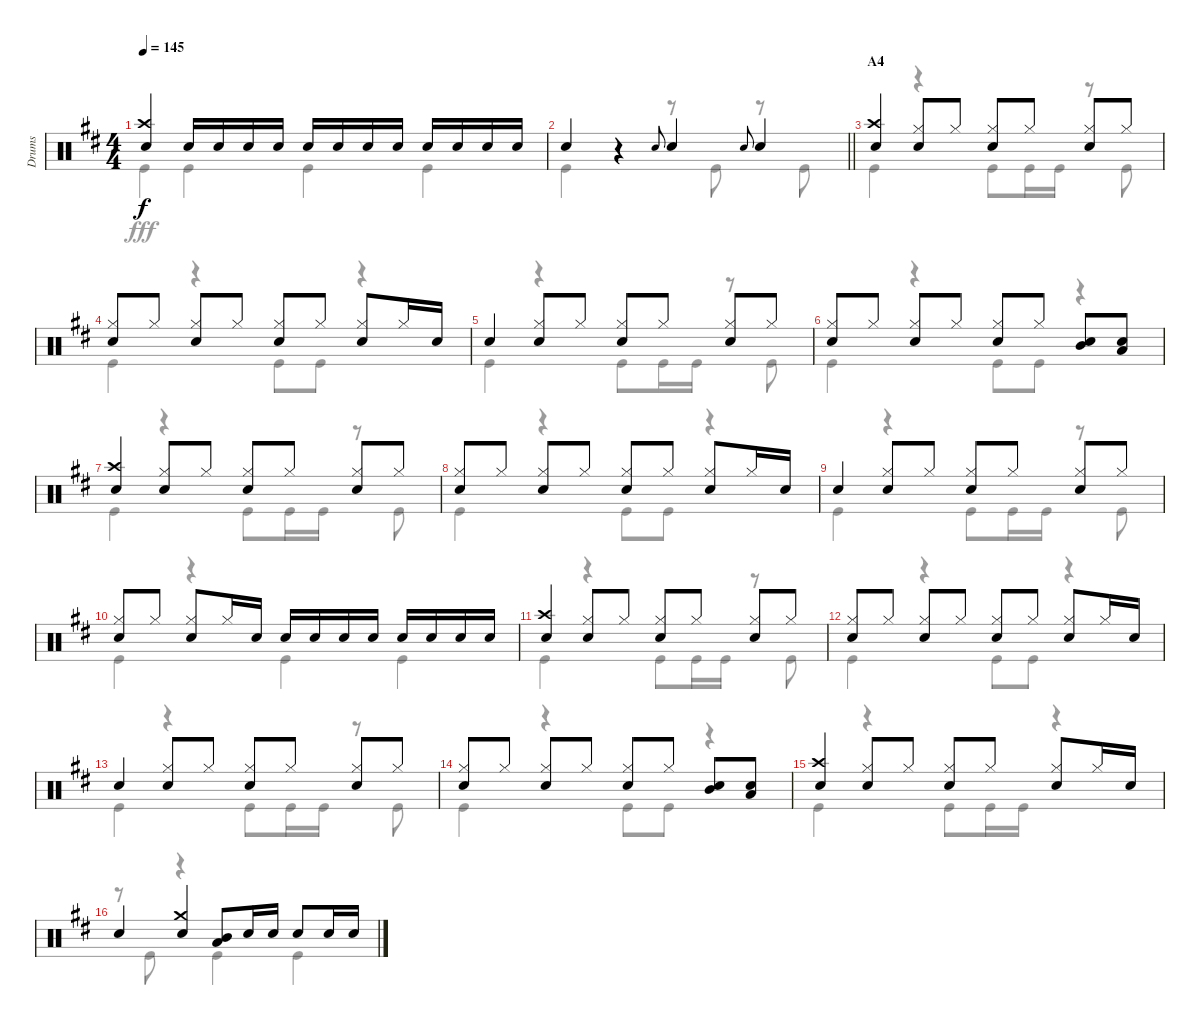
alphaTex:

\track ("Drums" "Drums") {instrument percussion}
\staff {score}
\articulation defaults
\voice
\ts (4 4)
\tempo 145
\clef neutral
\ks d
("Crash high (hit)" "Snare (hit) 2").4{dy f} "Snare (hit) 2".16 "Snare (hit) 2".16 "Snare (hit) 2".16 "Snare (hit) 2".16 "Snare (hit) 2".16 "Snare (hit) 2".16 "Snare (hit) 2".16 "Snare (hit) 2".16 "Snare (hit) 2".16 "Snare (hit) 2".16 "Snare (hit) 2".16 "Snare (hit) 2".16 |
\barLineRight lightlight "Snare (hit) 2".4
r.4 "Snare (hit) 2".8{gr onbeat} "Snare (hit) 2".4 "Snare (hit) 2".8{gr onbeat} "Snare (hit) 2".4 |
\section ("" "A4")
("Crash high (hit)" "Snare (hit) 2").4 ("Hi-Hat (closed)" "Snare (hit) 2").8 "Hi-Hat (closed)".8 ("Hi-Hat (closed)" "Snare (hit) 2").8 "Hi-Hat (closed)".8 ("Hi-Hat (closed)" "Snare (hit) 2").8 "Hi-Hat (closed)".8 |
("Hi-Hat (closed)" "Snare (hit) 2").8 "Hi-Hat (closed)".8 ("Hi-Hat (closed)" "Snare (hit) 2").8 "Hi-Hat (closed)".8 ("Hi-Hat (closed)" "Snare (hit) 2").8 "Hi-Hat (closed)".8 ("Hi-Hat (closed)" "Snare (hit) 2").8 "Hi-Hat (closed)".16 "Snare (hit) 2".16 |
"Snare (hit) 2".4 ("Hi-Hat (closed)" "Snare (hit) 2").8 "Hi-Hat (closed)".8 ("Hi-Hat (closed)" "Snare (hit) 2").8 "Hi-Hat (closed)".8 ("Hi-Hat (closed)" "Snare (hit) 2").8 "Hi-Hat (closed)".8 |
("Hi-Hat (closed)" "Snare (hit) 2").8 "Hi-Hat (closed)".8 ("Hi-Hat (closed)" "Snare (hit) 2").8 "Hi-Hat (closed)".8 ("Hi-Hat (closed)" "Snare (hit) 2").8 "Hi-Hat (closed)".8 ("Mid Tom (hit)" "Snare (hit) 2").8 ("Low Tom (hit)" "Snare (hit) 2").8 |
("Crash high (hit)" "Snare (hit) 2").4 ("Hi-Hat (closed)" "Snare (hit) 2").8 "Hi-Hat (closed)".8 ("Hi-Hat (closed)" "Snare (hit) 2").8 "Hi-Hat (closed)".8 ("Hi-Hat (closed)" "Snare (hit) 2").8 "Hi-Hat (closed)".8 |
("Hi-Hat (closed)" "Snare (hit) 2").8 "Hi-Hat (closed)".8 ("Hi-Hat (closed)" "Snare (hit) 2").8 "Hi-Hat (closed)".8 ("Hi-Hat (closed)" "Snare (hit) 2").8 "Hi-Hat (closed)".8 ("Hi-Hat (closed)" "Snare (hit) 2").8 "Hi-Hat (closed)".16 "Snare (hit) 2".16 |
"Snare (hit) 2".4 ("Hi-Hat (closed)" "Snare (hit) 2").8 "Hi-Hat (closed)".8 ("Hi-Hat (closed)" "Snare (hit) 2").8 "Hi-Hat (closed)".8 ("Hi-Hat (closed)" "Snare (hit) 2").8 "Hi-Hat (closed)".8 |
("Hi-Hat (closed)" "Snare (hit) 2").8 "Hi-Hat (closed)".8 ("Hi-Hat (closed)" "Snare (hit) 2").8 "Hi-Hat (closed)".16 "Snare (hit) 2".16 "Snare (hit) 2".16 "Snare (hit) 2".16 "Snare (hit) 2".16 "Snare (hit) 2".16 "Snare (hit) 2".16 "Snare (hit) 2".16 "Snare (hit) 2".16 "Snare (hit) 2".16 |
("Crash high (hit)" "Snare (hit) 2").4 ("Hi-Hat (closed)" "Snare (hit) 2").8 "Hi-Hat (closed)".8 ("Hi-Hat (closed)" "Snare (hit) 2").8 "Hi-Hat (closed)".8 ("Hi-Hat (closed)" "Snare (hit) 2").8 "Hi-Hat (closed)".8 |
("Hi-Hat (closed)" "Snare (hit) 2").8 "Hi-Hat (closed)".8 ("Hi-Hat (closed)" "Snare (hit) 2").8 "Hi-Hat (closed)".8 ("Hi-Hat (closed)" "Snare (hit) 2").8 "Hi-Hat (closed)".8 ("Hi-Hat (closed)" "Snare (hit) 2").8 "Hi-Hat (closed)".16 "Snare (hit) 2".16 |
"Snare (hit) 2".4 ("Hi-Hat (closed)" "Snare (hit) 2").8 "Hi-Hat (closed)".8 ("Hi-Hat (closed)" "Snare (hit) 2").8 "Hi-Hat (closed)".8 ("Hi-Hat (closed)" "Snare (hit) 2").8 "Hi-Hat (closed)".8 |
("Hi-Hat (closed)" "Snare (hit) 2").8 "Hi-Hat (closed)".8 ("Hi-Hat (closed)" "Snare (hit) 2").8 "Hi-Hat (closed)".8 ("Hi-Hat (closed)" "Snare (hit) 2").8 "Hi-Hat (closed)".8 ("Mid Tom (hit)" "Snare (hit) 2").8 ("Low Tom (hit)" "Snare (hit) 2").8 |
("Crash high (hit)" "Snare (hit) 2").4 ("Hi-Hat (closed)" "Snare (hit) 2").8 "Hi-Hat (closed)".8 ("Hi-Hat (closed)" "Snare (hit) 2").8 "Hi-Hat (closed)".8 ("Hi-Hat (closed)" "Snare (hit) 2").8 "Hi-Hat (closed)".16 "Snare (hit) 2".16 |
"Snare (hit) 2".4 ("Crash medium (hit)" "Snare (hit) 2").4 ("Low Tom (hit)" "Mid Tom (hit)").8 "Snare (hit) 2".16 "Snare (hit) 2".16 "Snare (hit) 2".8 "Snare (hit) 2".16 "Snare (hit) 2".16
\voice
\clef neutral
\ottava regular
\simile none
\ks d "Kick (hit)".4{dy fff} "Kick (hit)".4 "Kick (hit)".4 "Kick (hit)".4
|
\barLineRight lightlight "Kick (hit)".4
r.4 r.8 "Kick (hit)".8 r.8 "Kick (hit)".8 |
"Kick (hit)".4 r.4 "Kick (hit)".8 "Kick (hit)".16 "Kick (hit)".16 r.8 "Kick (hit)".8 |
"Kick (hit)".4 r.4 "Kick (hit)".8 "Kick (hit)".8 r.4 |
"Kick (hit)".4 r.4 "Kick (hit)".8 "Kick (hit)".16 "Kick (hit)".16 r.8 "Kick (hit)".8 |
"Kick (hit)".4 r.4 "Kick (hit)".8 "Kick (hit)".8 r.4 |
"Kick (hit)".4 r.4 "Kick (hit)".8 "Kick (hit)".16 "Kick (hit)".16 r.8 "Kick (hit)".8 |
"Kick (hit)".4 r.4 "Kick (hit)".8 "Kick (hit)".8 r.4 |
"Kick (hit)".4 r.4 "Kick (hit)".8 "Kick (hit)".16 "Kick (hit)".16 r.8 "Kick (hit)".8 |
"Kick (hit)".4 r.4 "Kick (hit)".4 "Kick (hit)".4 |
"Kick (hit)".4 r.4 "Kick (hit)".8 "Kick (hit)".16 "Kick (hit)".16 r.8 "Kick (hit)".8 |
"Kick (hit)".4 r.4 "Kick (hit)".8 "Kick (hit)".8 r.4 |
"Kick (hit)".4 r.4 "Kick (hit)".8 "Kick (hit)".16 "Kick (hit)".16 r.8 "Kick (hit)".8 |
"Kick (hit)".4 r.4 "Kick (hit)".8 "Kick (hit)".8 r.4 |
"Kick (hit)".4 r.4 "Kick (hit)".8 "Kick (hit)".16 "Kick (hit)".16 r.4 |
r.8 "Kick (hit)".8 r.4 "Kick (hit)".4 "Kick (hit)".4
